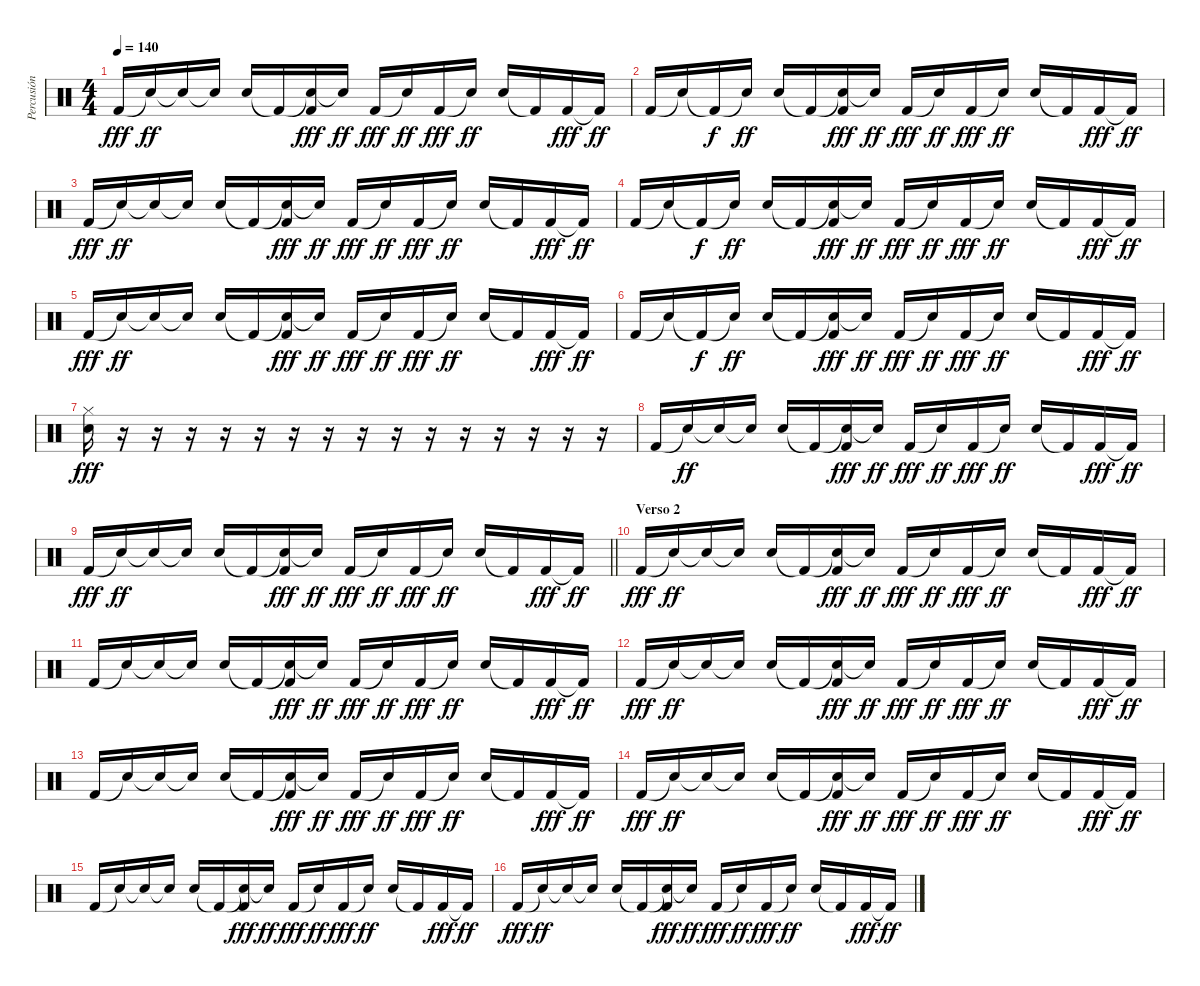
\track ("Percusión" "Percusión") {instrument percussion}
\staff {score}
\articulation defaults
\ts (4 4)
\tempo 140
\clef neutral
\ks c "Kick (hit) 2".16{dy fff} "Snare (hit)"{t}.16{dy ff} "Electric Snare (hit)"{t}.16 "Snare (hit)"{t}.16 "Electric Snare (hit)".16 "Kick (hit) 2"{t}.16
("Electric Snare (hit)"{t} "Kick (hit) 2").16{dy fff} "Snare (hit)"{t}.16{dy ff} "Kick (hit) 2".16{dy fff} "Snare (hit)"{t}.16{dy ff} "Kick (hit) 2".16{dy fff} "Snare (hit)"{t}.16{dy ff} "Electric Snare (hit)".16 "Kick (hit) 2"{t}.16 "Kick (hit) 2".16{dy fff} "Kick (hit) 2"{t}.16{dy ff} |
"Kick (hit) 2".16 "Snare (hit)"{t}.16 "Kick (hit) 2"{t}.16{dy f} "Snare (hit)"{t}.16{dy ff} "Electric Snare (hit)".16 "Kick (hit) 2"{t}.16 ("Electric Snare (hit)"{t} "Kick (hit) 2").16{dy fff} "Snare (hit)"{t}.16{dy ff} "Kick (hit) 2".16{dy fff} "Snare (hit)"{t}.16{dy ff} "Kick (hit) 2".16{dy fff} "Snare (hit)"{t}.16{dy ff} "Electric Snare (hit)".16 "Kick (hit) 2"{t}.16 "Kick (hit) 2".16{dy fff} "Kick (hit) 2"{t}.16{dy ff} |
"Kick (hit) 2".16{dy fff} "Snare (hit)"{t}.16{dy ff} "Electric Snare (hit)"{t}.16 "Snare (hit)"{t}.16 "Electric Snare (hit)".16 "Kick (hit) 2"{t}.16 ("Electric Snare (hit)"{t} "Kick (hit) 2").16{dy fff} "Snare (hit)"{t}.16{dy ff} "Kick (hit) 2".16{dy fff} "Snare (hit)"{t}.16{dy ff} "Kick (hit) 2".16{dy fff} "Snare (hit)"{t}.16{dy ff} "Electric Snare (hit)".16 "Kick (hit) 2"{t}.16 "Kick (hit) 2".16{dy fff} "Kick (hit) 2"{t}.16{dy ff} |
"Kick (hit) 2".16 "Snare (hit)"{t}.16 "Kick (hit) 2"{t}.16{dy f} "Snare (hit)"{t}.16{dy ff} "Electric Snare (hit)".16 "Kick (hit) 2"{t}.16 ("Electric Snare (hit)"{t} "Kick (hit) 2").16{dy fff} "Snare (hit)"{t}.16{dy ff} "Kick (hit) 2".16{dy fff} "Snare (hit)"{t}.16{dy ff} "Kick (hit) 2".16{dy fff} "Snare (hit)"{t}.16{dy ff} "Electric Snare (hit)".16 "Kick (hit) 2"{t}.16 "Kick (hit) 2".16{dy fff} "Kick (hit) 2"{t}.16{dy ff} |
"Kick (hit) 2".16{dy fff} "Snare (hit)"{t}.16{dy ff} "Electric Snare (hit)"{t}.16 "Snare (hit)"{t}.16 "Electric Snare (hit)".16 "Kick (hit) 2"{t}.16 ("Electric Snare (hit)"{t} "Kick (hit) 2").16{dy fff} "Snare (hit)"{t}.16{dy ff} "Kick (hit) 2".16{dy fff} "Snare (hit)"{t}.16{dy ff} "Kick (hit) 2".16{dy fff} "Snare (hit)"{t}.16{dy ff} "Electric Snare (hit)".16 "Kick (hit) 2"{t}.16 "Kick (hit) 2".16{dy fff} "Kick (hit) 2"{t}.16{dy ff} |
"Kick (hit) 2".16 "Snare (hit)"{t}.16 "Kick (hit) 2"{t}.16{dy f} "Snare (hit)"{t}.16{dy ff} "Electric Snare (hit)".16 "Kick (hit) 2"{t}.16 ("Electric Snare (hit)"{t} "Kick (hit) 2").16{dy fff} "Snare (hit)"{t}.16{dy ff} "Kick (hit) 2".16{dy fff} "Snare (hit)"{t}.16{dy ff} "Kick (hit) 2".16{dy fff} "Snare (hit)"{t}.16{dy ff} "Electric Snare (hit)".16 "Kick (hit) 2"{t}.16 "Kick (hit) 2".16{dy fff} "Kick (hit) 2"{t}.16{dy ff} |
("Hi-Hat (closed)" "Electric Snare (hit)").16{dy fff} r.16 r.16 r.16 r.16 r.16 r.16 r.16 r.16 r.16 r.16 r.16 r.16 r.16 r.16 r.16 |
"Kick (hit) 2".16 "Snare (hit)"{t}.16{dy ff} "Electric Snare (hit)"{t}.16 "Snare (hit)"{t}.16 "Electric Snare (hit)".16 "Kick (hit) 2"{t}.16 ("Electric Snare (hit)"{t} "Kick (hit) 2").16{dy fff} "Snare (hit)"{t}.16{dy ff} "Kick (hit) 2".16{dy fff} "Snare (hit)"{t}.16{dy ff} "Kick (hit) 2".16{dy fff} "Snare (hit)"{t}.16{dy ff} "Electric Snare (hit)".16 "Kick (hit) 2"{t}.16 "Kick (hit) 2".16{dy fff} "Kick (hit) 2"{t}.16{dy ff} |
\barLineRight lightlight "Kick (hit) 2".16{dy fff} "Snare (hit)"{t}.16{dy ff} "Electric Snare (hit)"{t}.16 "Snare (hit)"{t}.16 "Electric Snare (hit)".16 "Kick (hit) 2"{t}.16
("Electric Snare (hit)"{t} "Kick (hit) 2").16{dy fff} "Snare (hit)"{t}.16{dy ff} "Kick (hit) 2".16{dy fff} "Snare (hit)"{t}.16{dy ff} "Kick (hit) 2".16{dy fff} "Snare (hit)"{t}.16{dy ff} "Electric Snare (hit)".16 "Kick (hit) 2"{t}.16 "Kick (hit) 2".16{dy fff} "Kick (hit) 2"{t}.16{dy ff} |
\section ("" "Verso 2")
"Kick (hit) 2".16{dy fff} "Snare (hit)"{t}.16{dy ff} "Electric Snare (hit)"{t}.16 "Snare (hit)"{t}.16 "Electric Snare (hit)".16 "Kick (hit) 2"{t}.16 ("Electric Snare (hit)"{t} "Kick (hit) 2").16{dy fff} "Snare (hit)"{t}.16{dy ff} "Kick (hit) 2".16{dy fff} "Snare (hit)"{t}.16{dy ff} "Kick (hit) 2".16{dy fff} "Snare (hit)"{t}.16{dy ff} "Electric Snare (hit)".16 "Kick (hit) 2"{t}.16 "Kick (hit) 2".16{dy fff} "Kick (hit) 2"{t}.16{dy ff} |
"Kick (hit) 2".16 "Snare (hit)"{t}.16 "Electric Snare (hit)"{t}.16 "Snare (hit)"{t}.16 "Electric Snare (hit)".16 "Kick (hit) 2"{t}.16 ("Electric Snare (hit)"{t} "Kick (hit) 2").16{dy fff} "Snare (hit)"{t}.16{dy ff} "Kick (hit) 2".16{dy fff} "Snare (hit)"{t}.16{dy ff} "Kick (hit) 2".16{dy fff} "Snare (hit)"{t}.16{dy ff} "Electric Snare (hit)".16 "Kick (hit) 2"{t}.16 "Kick (hit) 2".16{dy fff} "Kick (hit) 2"{t}.16{dy ff} |
"Kick (hit) 2".16{dy fff} "Snare (hit)"{t}.16{dy ff} "Electric Snare (hit)"{t}.16 "Snare (hit)"{t}.16 "Electric Snare (hit)".16 "Kick (hit) 2"{t}.16 ("Electric Snare (hit)"{t} "Kick (hit) 2").16{dy fff} "Snare (hit)"{t}.16{dy ff} "Kick (hit) 2".16{dy fff} "Snare (hit)"{t}.16{dy ff} "Kick (hit) 2".16{dy fff} "Snare (hit)"{t}.16{dy ff} "Electric Snare (hit)".16 "Kick (hit) 2"{t}.16 "Kick (hit) 2".16{dy fff} "Kick (hit) 2"{t}.16{dy ff} |
"Kick (hit) 2".16 "Snare (hit)"{t}.16 "Electric Snare (hit)"{t}.16 "Snare (hit)"{t}.16 "Electric Snare (hit)".16 "Kick (hit) 2"{t}.16 ("Electric Snare (hit)"{t} "Kick (hit) 2").16{dy fff} "Snare (hit)"{t}.16{dy ff} "Kick (hit) 2".16{dy fff} "Snare (hit)"{t}.16{dy ff} "Kick (hit) 2".16{dy fff} "Snare (hit)"{t}.16{dy ff} "Electric Snare (hit)".16 "Kick (hit) 2"{t}.16 "Kick (hit) 2".16{dy fff} "Kick (hit) 2"{t}.16{dy ff} |
"Kick (hit) 2".16{dy fff} "Snare (hit)"{t}.16{dy ff} "Electric Snare (hit)"{t}.16 "Snare (hit)"{t}.16 "Electric Snare (hit)".16 "Kick (hit) 2"{t}.16 ("Electric Snare (hit)"{t} "Kick (hit) 2").16{dy fff} "Snare (hit)"{t}.16{dy ff} "Kick (hit) 2".16{dy fff} "Snare (hit)"{t}.16{dy ff} "Kick (hit) 2".16{dy fff} "Snare (hit)"{t}.16{dy ff} "Electric Snare (hit)".16 "Kick (hit) 2"{t}.16 "Kick (hit) 2".16{dy fff} "Kick (hit) 2"{t}.16{dy ff} |
"Kick (hit) 2".16 "Snare (hit)"{t}.16 "Electric Snare (hit)"{t}.16 "Snare (hit)"{t}.16 "Electric Snare (hit)".16 "Kick (hit) 2"{t}.16 ("Electric Snare (hit)"{t} "Kick (hit) 2").16{dy fff} "Snare (hit)"{t}.16{dy ff} "Kick (hit) 2".16{dy fff} "Snare (hit)"{t}.16{dy ff} "Kick (hit) 2".16{dy fff} "Snare (hit)"{t}.16{dy ff} "Electric Snare (hit)".16 "Kick (hit) 2"{t}.16 "Kick (hit) 2".16{dy fff} "Kick (hit) 2"{t}.16{dy ff} |
"Kick (hit) 2".16{dy fff} "Snare (hit)"{t}.16{dy ff} "Electric Snare (hit)"{t}.16 "Snare (hit)"{t}.16 "Electric Snare (hit)".16 "Kick (hit) 2"{t}.16 ("Electric Snare (hit)"{t} "Kick (hit) 2").16{dy fff} "Snare (hit)"{t}.16{dy ff} "Kick (hit) 2".16{dy fff} "Snare (hit)"{t}.16{dy ff} "Kick (hit) 2".16{dy fff} "Snare (hit)"{t}.16{dy ff} "Electric Snare (hit)".16 "Kick (hit) 2"{t}.16 "Kick (hit) 2".16{dy fff} "Kick (hit) 2"{t}.16{dy ff}
